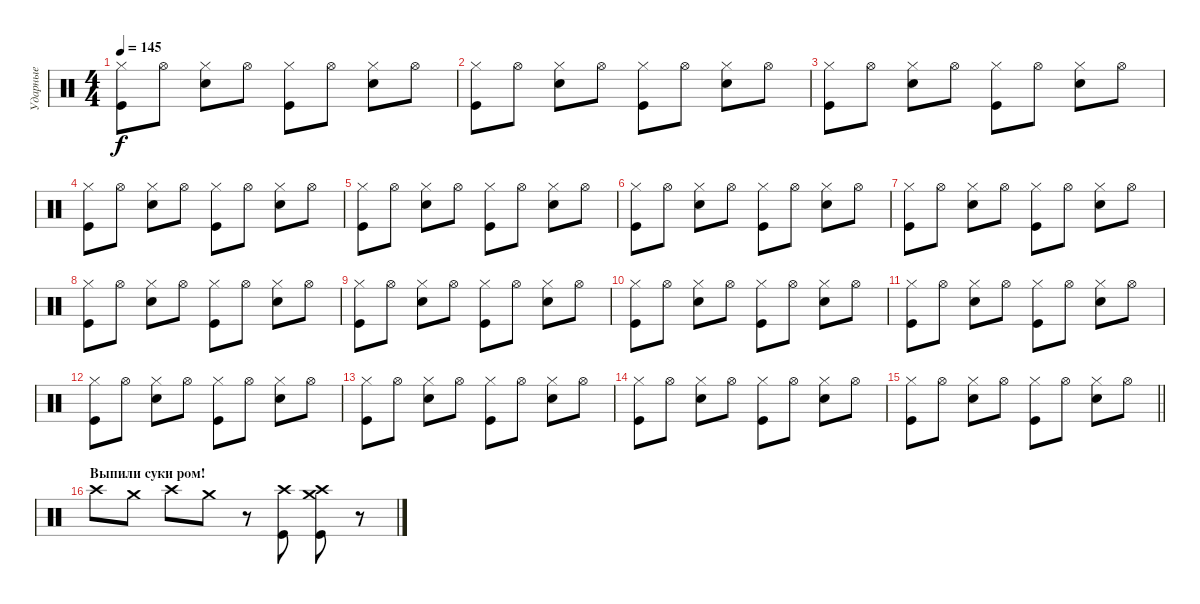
\track ("Ударные" "Ударные") {instrument percussion}
\staff {score}
\articulation defaults
\ts (4 4)
\tempo 145
\clef neutral
\ks c
("Kick (hit)" "Hi-Hat (closed)").8{dy f} "Hi-Hat (open)".8 ("Electric Snare (hit)" "Hi-Hat (closed)").8 "Hi-Hat (open)".8 ("Kick (hit)" "Hi-Hat (closed)").8 "Hi-Hat (open)".8 ("Electric Snare (hit)" "Hi-Hat (closed)").8 "Hi-Hat (open)".8 |
("Kick (hit)" "Hi-Hat (closed)").8 "Hi-Hat (open)".8 ("Electric Snare (hit)" "Hi-Hat (closed)").8 "Hi-Hat (open)".8 ("Kick (hit)" "Hi-Hat (closed)").8 "Hi-Hat (open)".8 ("Electric Snare (hit)" "Hi-Hat (closed)").8 "Hi-Hat (open)".8 |
("Kick (hit)" "Hi-Hat (closed)").8 "Hi-Hat (open)".8 ("Electric Snare (hit)" "Hi-Hat (closed)").8 "Hi-Hat (open)".8 ("Kick (hit)" "Hi-Hat (closed)").8 "Hi-Hat (open)".8 ("Electric Snare (hit)" "Hi-Hat (closed)").8 "Hi-Hat (open)".8 |
("Kick (hit)" "Hi-Hat (closed)").8 "Hi-Hat (open)".8 ("Electric Snare (hit)" "Hi-Hat (closed)").8 "Hi-Hat (open)".8 ("Kick (hit)" "Hi-Hat (closed)").8 "Hi-Hat (open)".8 ("Electric Snare (hit)" "Hi-Hat (closed)").8 "Hi-Hat (open)".8 |
("Kick (hit)" "Hi-Hat (closed)").8 "Hi-Hat (open)".8 ("Electric Snare (hit)" "Hi-Hat (closed)").8 "Hi-Hat (open)".8 ("Kick (hit)" "Hi-Hat (closed)").8 "Hi-Hat (open)".8 ("Electric Snare (hit)" "Hi-Hat (closed)").8 "Hi-Hat (open)".8 |
("Kick (hit)" "Hi-Hat (closed)").8 "Hi-Hat (open)".8 ("Electric Snare (hit)" "Hi-Hat (closed)").8 "Hi-Hat (open)".8 ("Kick (hit)" "Hi-Hat (closed)").8 "Hi-Hat (open)".8 ("Electric Snare (hit)" "Hi-Hat (closed)").8 "Hi-Hat (open)".8 |
("Kick (hit)" "Hi-Hat (closed)").8 "Hi-Hat (open)".8 ("Electric Snare (hit)" "Hi-Hat (closed)").8 "Hi-Hat (open)".8 ("Kick (hit)" "Hi-Hat (closed)").8 "Hi-Hat (open)".8 ("Electric Snare (hit)" "Hi-Hat (closed)").8 "Hi-Hat (open)".8 |
("Kick (hit)" "Hi-Hat (closed)").8 "Hi-Hat (open)".8 ("Electric Snare (hit)" "Hi-Hat (closed)").8 "Hi-Hat (open)".8 ("Kick (hit)" "Hi-Hat (closed)").8 "Hi-Hat (open)".8 ("Electric Snare (hit)" "Hi-Hat (closed)").8 "Hi-Hat (open)".8 |
("Kick (hit)" "Hi-Hat (closed)").8 "Hi-Hat (open)".8 ("Electric Snare (hit)" "Hi-Hat (closed)").8 "Hi-Hat (open)".8 ("Kick (hit)" "Hi-Hat (closed)").8 "Hi-Hat (open)".8 ("Electric Snare (hit)" "Hi-Hat (closed)").8 "Hi-Hat (open)".8 |
("Kick (hit)" "Hi-Hat (closed)").8 "Hi-Hat (open)".8 ("Electric Snare (hit)" "Hi-Hat (closed)").8 "Hi-Hat (open)".8 ("Kick (hit)" "Hi-Hat (closed)").8 "Hi-Hat (open)".8 ("Electric Snare (hit)" "Hi-Hat (closed)").8 "Hi-Hat (open)".8 |
("Kick (hit)" "Hi-Hat (closed)").8 "Hi-Hat (open)".8 ("Electric Snare (hit)" "Hi-Hat (closed)").8 "Hi-Hat (open)".8 ("Kick (hit)" "Hi-Hat (closed)").8 "Hi-Hat (open)".8 ("Electric Snare (hit)" "Hi-Hat (closed)").8 "Hi-Hat (open)".8 |
("Kick (hit)" "Hi-Hat (closed)").8 "Hi-Hat (open)".8 ("Electric Snare (hit)" "Hi-Hat (closed)").8 "Hi-Hat (open)".8 ("Kick (hit)" "Hi-Hat (closed)").8 "Hi-Hat (open)".8 ("Electric Snare (hit)" "Hi-Hat (closed)").8 "Hi-Hat (open)".8 |
("Kick (hit)" "Hi-Hat (closed)").8 "Hi-Hat (open)".8 ("Electric Snare (hit)" "Hi-Hat (closed)").8 "Hi-Hat (open)".8 ("Kick (hit)" "Hi-Hat (closed)").8 "Hi-Hat (open)".8 ("Electric Snare (hit)" "Hi-Hat (closed)").8 "Hi-Hat (open)".8 |
("Kick (hit)" "Hi-Hat (closed)").8 "Hi-Hat (open)".8 ("Electric Snare (hit)" "Hi-Hat (closed)").8 "Hi-Hat (open)".8 ("Kick (hit)" "Hi-Hat (closed)").8 "Hi-Hat (open)".8 ("Electric Snare (hit)" "Hi-Hat (closed)").8 "Hi-Hat (open)".8 |
\barLineRight lightlight
("Kick (hit)" "Hi-Hat (closed)").8 "Hi-Hat (open)".8 ("Electric Snare (hit)" "Hi-Hat (closed)").8 "Hi-Hat (open)".8 ("Kick (hit)" "Hi-Hat (closed)").8 "Hi-Hat (open)".8 ("Electric Snare (hit)" "Hi-Hat (closed)").8 "Hi-Hat (open)".8 |
\section ("" "Выпили суки ром!")
"Crash high (hit)".8 "Crash medium (hit)".8 "Crash high (hit)".8 "Crash medium (hit)".8 r.8 ("Crash high (hit)" "Kick (hit)").8 ("Crash high (hit)" "Kick (hit)" "Crash medium (hit)").8 r.8
